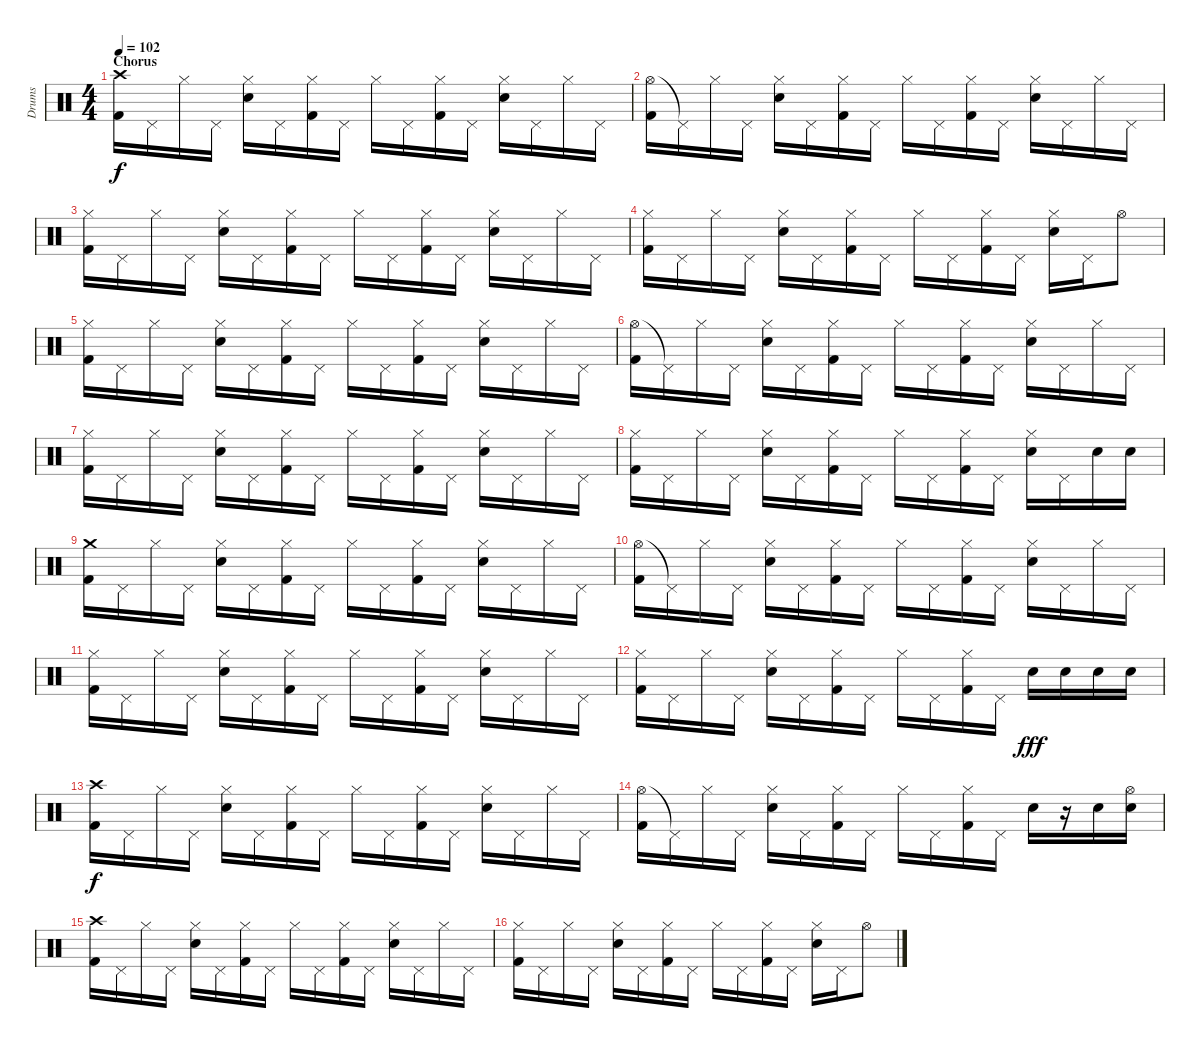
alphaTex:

\track ("Drums" "Drums") {instrument percussion}
\staff {score}
\articulation defaults
\ts (4 4)
\section ("" "Chorus")
\tempo 102
\clef neutral
\ks c
("Crash high (hit)" "Kick (hit) 2").16{dy f} "Pedal Hi-Hat (hit)".16 "Hi-Hat (closed)".16 "Pedal Hi-Hat (hit)".16 ("Hi-Hat (closed)" "Electric Snare (hit)").16 "Pedal Hi-Hat (hit)".16 ("Hi-Hat (closed)" "Kick (hit) 2").16 "Pedal Hi-Hat (hit)".16 "Hi-Hat (closed)".16 "Pedal Hi-Hat (hit)".16 ("Hi-Hat (closed)" "Kick (hit) 2").16 "Pedal Hi-Hat (hit)".16 ("Hi-Hat (closed)" "Electric Snare (hit)").16 "Pedal Hi-Hat (hit)".16 "Hi-Hat (closed)".16 "Pedal Hi-Hat (hit)".16 |
("Hi-Hat (open)" "Kick (hit) 2").16 "Pedal Hi-Hat (hit)"{t}.16 "Hi-Hat (closed)".16 "Pedal Hi-Hat (hit)".16 ("Hi-Hat (closed)" "Electric Snare (hit)").16 "Pedal Hi-Hat (hit)".16 ("Hi-Hat (closed)" "Kick (hit) 2").16 "Pedal Hi-Hat (hit)".16 "Hi-Hat (closed)".16 "Pedal Hi-Hat (hit)".16 ("Hi-Hat (closed)" "Kick (hit) 2").16 "Pedal Hi-Hat (hit)".16 ("Hi-Hat (closed)" "Electric Snare (hit)").16 "Pedal Hi-Hat (hit)".16 "Hi-Hat (closed)".16 "Pedal Hi-Hat (hit)".16 |
("Hi-Hat (closed)" "Kick (hit) 2").16 "Pedal Hi-Hat (hit)".16 "Hi-Hat (closed)".16 "Pedal Hi-Hat (hit)".16 ("Hi-Hat (closed)" "Electric Snare (hit)").16 "Pedal Hi-Hat (hit)".16 ("Hi-Hat (closed)" "Kick (hit) 2").16 "Pedal Hi-Hat (hit)".16 "Hi-Hat (closed)".16 "Pedal Hi-Hat (hit)".16 ("Hi-Hat (closed)" "Kick (hit) 2").16 "Pedal Hi-Hat (hit)".16 ("Hi-Hat (closed)" "Electric Snare (hit)").16 "Pedal Hi-Hat (hit)".16 "Hi-Hat (closed)".16 "Pedal Hi-Hat (hit)".16 |
("Hi-Hat (closed)" "Kick (hit) 2").16 "Pedal Hi-Hat (hit)".16 "Hi-Hat (closed)".16 "Pedal Hi-Hat (hit)".16 ("Hi-Hat (closed)" "Electric Snare (hit)").16 "Pedal Hi-Hat (hit)".16 ("Hi-Hat (closed)" "Kick (hit) 2").16 "Pedal Hi-Hat (hit)".16 "Hi-Hat (closed)".16 "Pedal Hi-Hat (hit)".16 ("Hi-Hat (closed)" "Kick (hit) 2").16 "Pedal Hi-Hat (hit)".16 ("Hi-Hat (closed)" "Electric Snare (hit)").16 "Pedal Hi-Hat (hit)".16 "Hi-Hat (open)".8 |
("Hi-Hat (closed)" "Kick (hit) 2").16 "Pedal Hi-Hat (hit)".16 "Hi-Hat (closed)".16 "Pedal Hi-Hat (hit)".16 ("Hi-Hat (closed)" "Electric Snare (hit)").16 "Pedal Hi-Hat (hit)".16 ("Hi-Hat (closed)" "Kick (hit) 2").16 "Pedal Hi-Hat (hit)".16 "Hi-Hat (closed)".16 "Pedal Hi-Hat (hit)".16 ("Hi-Hat (closed)" "Kick (hit) 2").16 "Pedal Hi-Hat (hit)".16 ("Hi-Hat (closed)" "Electric Snare (hit)").16 "Pedal Hi-Hat (hit)".16 "Hi-Hat (closed)".16 "Pedal Hi-Hat (hit)".16 |
("Hi-Hat (open)" "Kick (hit) 2").16 "Pedal Hi-Hat (hit)"{t}.16 "Hi-Hat (closed)".16 "Pedal Hi-Hat (hit)".16 ("Hi-Hat (closed)" "Electric Snare (hit)").16 "Pedal Hi-Hat (hit)".16 ("Hi-Hat (closed)" "Kick (hit) 2").16 "Pedal Hi-Hat (hit)".16 "Hi-Hat (closed)".16 "Pedal Hi-Hat (hit)".16 ("Hi-Hat (closed)" "Kick (hit) 2").16 "Pedal Hi-Hat (hit)".16 ("Hi-Hat (closed)" "Electric Snare (hit)").16 "Pedal Hi-Hat (hit)".16 "Hi-Hat (closed)".16 "Pedal Hi-Hat (hit)".16 |
("Hi-Hat (closed)" "Kick (hit) 2").16 "Pedal Hi-Hat (hit)".16 "Hi-Hat (closed)".16 "Pedal Hi-Hat (hit)".16 ("Hi-Hat (closed)" "Electric Snare (hit)").16 "Pedal Hi-Hat (hit)".16 ("Hi-Hat (closed)" "Kick (hit) 2").16 "Pedal Hi-Hat (hit)".16 "Hi-Hat (closed)".16 "Pedal Hi-Hat (hit)".16 ("Hi-Hat (closed)" "Kick (hit) 2").16 "Pedal Hi-Hat (hit)".16 ("Hi-Hat (closed)" "Electric Snare (hit)").16 "Pedal Hi-Hat (hit)".16 "Hi-Hat (closed)".16 "Pedal Hi-Hat (hit)".16 |
("Hi-Hat (closed)" "Kick (hit) 2").16 "Pedal Hi-Hat (hit)".16 "Hi-Hat (closed)".16 "Pedal Hi-Hat (hit)".16 ("Hi-Hat (closed)" "Electric Snare (hit)").16 "Pedal Hi-Hat (hit)".16 ("Hi-Hat (closed)" "Kick (hit) 2").16 "Pedal Hi-Hat (hit)".16 "Hi-Hat (closed)".16 "Pedal Hi-Hat (hit)".16 ("Hi-Hat (closed)" "Kick (hit) 2").16 "Pedal Hi-Hat (hit)".16 ("Hi-Hat (closed)" "Electric Snare (hit)").16 "Pedal Hi-Hat (hit)".16 "Electric Snare (hit)".16 "Electric Snare (hit)".16 |
("Crash medium (hit)" "Kick (hit) 2").16 "Pedal Hi-Hat (hit)".16 "Hi-Hat (closed)".16 "Pedal Hi-Hat (hit)".16 ("Hi-Hat (closed)" "Electric Snare (hit)").16 "Pedal Hi-Hat (hit)".16 ("Hi-Hat (closed)" "Kick (hit) 2").16 "Pedal Hi-Hat (hit)".16 "Hi-Hat (closed)".16 "Pedal Hi-Hat (hit)".16 ("Hi-Hat (closed)" "Kick (hit) 2").16 "Pedal Hi-Hat (hit)".16 ("Hi-Hat (closed)" "Electric Snare (hit)").16 "Pedal Hi-Hat (hit)".16 "Hi-Hat (closed)".16 "Pedal Hi-Hat (hit)".16 |
("Hi-Hat (open)" "Kick (hit) 2").16 "Pedal Hi-Hat (hit)"{t}.16 "Hi-Hat (closed)".16 "Pedal Hi-Hat (hit)".16 ("Hi-Hat (closed)" "Electric Snare (hit)").16 "Pedal Hi-Hat (hit)".16 ("Hi-Hat (closed)" "Kick (hit) 2").16 "Pedal Hi-Hat (hit)".16 "Hi-Hat (closed)".16 "Pedal Hi-Hat (hit)".16 ("Hi-Hat (closed)" "Kick (hit) 2").16 "Pedal Hi-Hat (hit)".16 ("Hi-Hat (closed)" "Electric Snare (hit)").16 "Pedal Hi-Hat (hit)".16 "Hi-Hat (closed)".16 "Pedal Hi-Hat (hit)".16 |
("Hi-Hat (closed)" "Kick (hit) 2").16 "Pedal Hi-Hat (hit)".16 "Hi-Hat (closed)".16 "Pedal Hi-Hat (hit)".16 ("Hi-Hat (closed)" "Electric Snare (hit)").16 "Pedal Hi-Hat (hit)".16 ("Hi-Hat (closed)" "Kick (hit) 2").16 "Pedal Hi-Hat (hit)".16 "Hi-Hat (closed)".16 "Pedal Hi-Hat (hit)".16 ("Hi-Hat (closed)" "Kick (hit) 2").16 "Pedal Hi-Hat (hit)".16 ("Hi-Hat (closed)" "Electric Snare (hit)").16 "Pedal Hi-Hat (hit)".16 "Hi-Hat (closed)".16 "Pedal Hi-Hat (hit)".16 |
("Hi-Hat (closed)" "Kick (hit) 2").16 "Pedal Hi-Hat (hit)".16 "Hi-Hat (closed)".16 "Pedal Hi-Hat (hit)".16 ("Hi-Hat (closed)" "Electric Snare (hit)").16 "Pedal Hi-Hat (hit)".16 ("Hi-Hat (closed)" "Kick (hit) 2").16 "Pedal Hi-Hat (hit)".16 "Hi-Hat (closed)".16 "Pedal Hi-Hat (hit)".16 ("Hi-Hat (closed)" "Kick (hit) 2").16 "Pedal Hi-Hat (hit)".16 "Electric Snare (hit)".16{dy fff} "Electric Snare (hit)".16 "Electric Snare (hit)".16 "Electric Snare (hit)".16 |
("Crash high (hit)" "Kick (hit) 2").16{dy f} "Pedal Hi-Hat (hit)".16 "Hi-Hat (closed)".16 "Pedal Hi-Hat (hit)".16 ("Hi-Hat (closed)" "Electric Snare (hit)").16 "Pedal Hi-Hat (hit)".16 ("Hi-Hat (closed)" "Kick (hit) 2").16 "Pedal Hi-Hat (hit)".16 "Hi-Hat (closed)".16 "Pedal Hi-Hat (hit)".16 ("Hi-Hat (closed)" "Kick (hit) 2").16 "Pedal Hi-Hat (hit)".16 ("Hi-Hat (closed)" "Electric Snare (hit)").16 "Pedal Hi-Hat (hit)".16 "Hi-Hat (closed)".16 "Pedal Hi-Hat (hit)".16 |
("Hi-Hat (open)" "Kick (hit) 2").16 "Pedal Hi-Hat (hit)"{t}.16 "Hi-Hat (closed)".16 "Pedal Hi-Hat (hit)".16 ("Hi-Hat (closed)" "Electric Snare (hit)").16 "Pedal Hi-Hat (hit)".16 ("Hi-Hat (closed)" "Kick (hit) 2").16 "Pedal Hi-Hat (hit)".16 "Hi-Hat (closed)".16 "Pedal Hi-Hat (hit)".16 ("Hi-Hat (closed)" "Kick (hit) 2").16 "Pedal Hi-Hat (hit)".16 "Electric Snare (hit)".16 r.16 "Electric Snare (hit)".16 ("Hi-Hat (open)" "Electric Snare (hit)").16 |
("Crash high (hit)" "Kick (hit) 2").16 "Pedal Hi-Hat (hit)".16 "Hi-Hat (closed)".16 "Pedal Hi-Hat (hit)".16 ("Hi-Hat (closed)" "Electric Snare (hit)").16 "Pedal Hi-Hat (hit)".16 ("Hi-Hat (closed)" "Kick (hit) 2").16 "Pedal Hi-Hat (hit)".16 "Hi-Hat (closed)".16 "Pedal Hi-Hat (hit)".16 ("Hi-Hat (closed)" "Kick (hit) 2").16 "Pedal Hi-Hat (hit)".16 ("Hi-Hat (closed)" "Electric Snare (hit)").16 "Pedal Hi-Hat (hit)".16 "Hi-Hat (closed)".16 "Pedal Hi-Hat (hit)".16 |
("Hi-Hat (closed)" "Kick (hit) 2").16 "Pedal Hi-Hat (hit)".16 "Hi-Hat (closed)".16 "Pedal Hi-Hat (hit)".16 ("Hi-Hat (closed)" "Electric Snare (hit)").16 "Pedal Hi-Hat (hit)".16 ("Hi-Hat (closed)" "Kick (hit) 2").16 "Pedal Hi-Hat (hit)".16 "Hi-Hat (closed)".16 "Pedal Hi-Hat (hit)".16 ("Hi-Hat (closed)" "Kick (hit) 2").16 "Pedal Hi-Hat (hit)".16 ("Hi-Hat (closed)" "Electric Snare (hit)").16 "Pedal Hi-Hat (hit)".16 "Hi-Hat (open)".8
